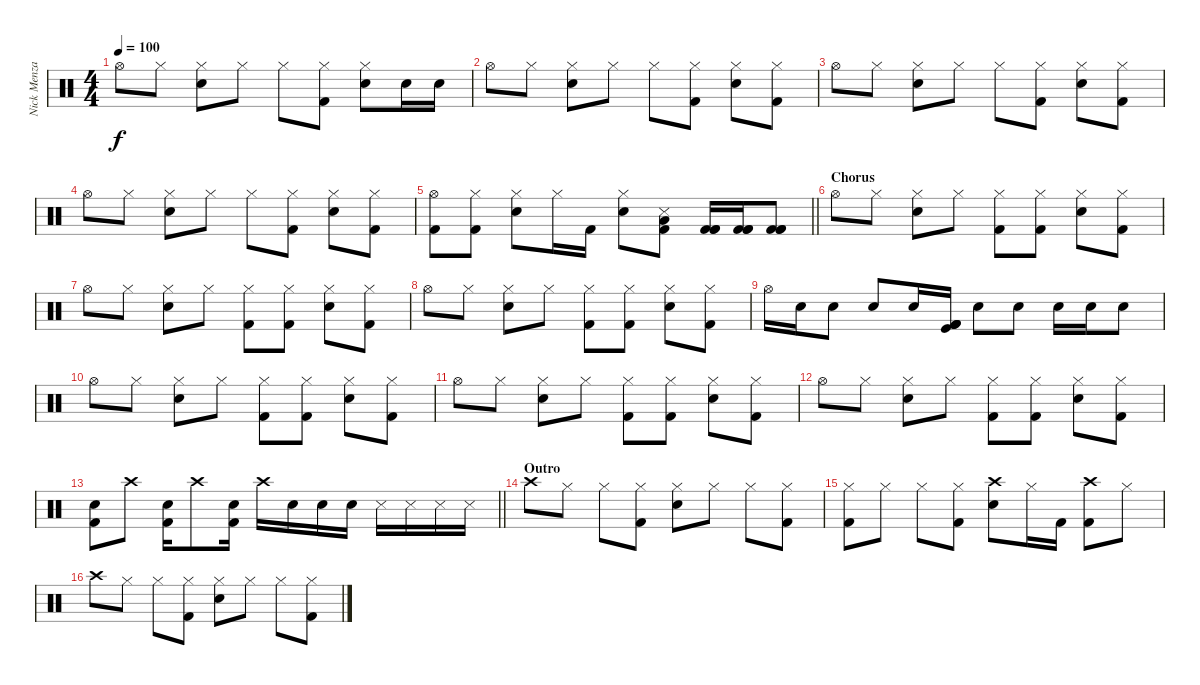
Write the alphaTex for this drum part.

\track ("Nick Menza" "Nick Menza") {instrument percussion}
\staff {score}
\articulation defaults
\ts (4 4)
\tempo 100
\clef neutral
\ks c "Hi-Hat (open)".8{dy f} "Hi-Hat (closed)".8
("Hi-Hat (closed)" "Snare (hit) 2").8 "Hi-Hat (closed)".8 "Hi-Hat (closed)".8 ("Hi-Hat (closed)" "Kick (hit) 2").8 ("Hi-Hat (closed)" "Snare (hit) 2").8 "Snare (hit) 2".16 "Snare (hit) 2".16 |
"Hi-Hat (open)".8 "Hi-Hat (closed)".8 ("Hi-Hat (closed)" "Snare (hit) 2").8 "Hi-Hat (closed)".8 "Hi-Hat (closed)".8 ("Hi-Hat (closed)" "Kick (hit) 2").8 ("Hi-Hat (closed)" "Snare (hit) 2").8 ("Hi-Hat (closed)" "Kick (hit) 2").8 |
"Hi-Hat (open)".8 "Hi-Hat (closed)".8 ("Hi-Hat (closed)" "Snare (hit) 2").8 "Hi-Hat (closed)".8 "Hi-Hat (closed)".8 ("Hi-Hat (closed)" "Kick (hit) 2").8 ("Hi-Hat (closed)" "Snare (hit) 2").8 ("Hi-Hat (closed)" "Kick (hit) 2").8 |
"Hi-Hat (open)".8 "Hi-Hat (closed)".8 ("Hi-Hat (closed)" "Snare (hit) 2").8 "Hi-Hat (closed)".8 "Hi-Hat (closed)".8 ("Hi-Hat (closed)" "Kick (hit) 2").8 ("Hi-Hat (closed)" "Snare (hit) 2").8 ("Hi-Hat (closed)" "Kick (hit) 2").8 |
\barLineRight lightlight
("Hi-Hat (open)" "Kick (hit) 2").8 ("Hi-Hat (closed)" "Kick (hit) 2").8 ("Hi-Hat (closed)" "Snare (hit) 2").8 "Hi-Hat (closed)".16 "Kick (hit) 2".16 ("Hi-Hat (closed)" "Snare (hit) 2").8 ("Low Floor Tom (hit)" "Snare (side stick) 3" "Kick (hit) 2").8 ("Kick (hit) 2" "Kick (hit) 2" "Kick (hit) 2").16 ("Kick (hit) 2" "Kick (hit) 2" "Kick (hit) 2").16 ("Kick (hit) 2" "Kick (hit) 2" "Kick (hit) 2").8 |
\section ("" "Chorus")
"Hi-Hat (open)".8 "Hi-Hat (closed)".8 ("Hi-Hat (closed)" "Snare (hit) 2").8 "Hi-Hat (closed)".8 ("Hi-Hat (closed)" "Kick (hit) 2").8 ("Hi-Hat (closed)" "Kick (hit) 2").8 ("Hi-Hat (closed)" "Snare (hit) 2").8 ("Hi-Hat (closed)" "Kick (hit) 2").8 |
"Hi-Hat (open)".8 "Hi-Hat (closed)".8 ("Hi-Hat (closed)" "Snare (hit) 2").8 "Hi-Hat (closed)".8 ("Hi-Hat (closed)" "Kick (hit) 2").8 ("Hi-Hat (closed)" "Kick (hit) 2").8 ("Hi-Hat (closed)" "Snare (hit) 2").8 ("Hi-Hat (closed)" "Kick (hit) 2").8 |
"Hi-Hat (open)".8 "Hi-Hat (closed)".8 ("Hi-Hat (closed)" "Snare (hit) 2").8 "Hi-Hat (closed)".8 ("Hi-Hat (closed)" "Kick (hit) 2").8 ("Hi-Hat (closed)" "Kick (hit) 2").8 ("Hi-Hat (closed)" "Snare (hit) 2").8 ("Hi-Hat (closed)" "Kick (hit) 2").8 |
"Hi-Hat (open)".16 "Snare (hit) 2".16 "Snare (hit) 2".8 "Snare (hit) 2".8 "Snare (hit) 2".16 ("Kick (hit)" "Kick (hit) 2" "Kick (hit) 2" "Kick (hit) 2").16 "Snare (hit) 2".8 "Snare (hit) 2".8 "Snare (hit) 2".16 "Snare (hit) 2".16 "Snare (hit) 2".8 |
"Hi-Hat (open)".8 "Hi-Hat (closed)".8 ("Hi-Hat (closed)" "Snare (hit) 2").8 "Hi-Hat (closed)".8 ("Hi-Hat (closed)" "Kick (hit) 2").8 ("Hi-Hat (closed)" "Kick (hit) 2").8 ("Hi-Hat (closed)" "Snare (hit) 2").8 ("Hi-Hat (closed)" "Kick (hit) 2").8 |
"Hi-Hat (open)".8 "Hi-Hat (closed)".8 ("Hi-Hat (closed)" "Snare (hit) 2").8 "Hi-Hat (closed)".8 ("Hi-Hat (closed)" "Kick (hit) 2").8 ("Hi-Hat (closed)" "Kick (hit) 2").8 ("Hi-Hat (closed)" "Snare (hit) 2").8 ("Hi-Hat (closed)" "Kick (hit) 2").8 |
"Hi-Hat (open)".8 "Hi-Hat (closed)".8 ("Hi-Hat (closed)" "Snare (hit) 2").8 "Hi-Hat (closed)".8 ("Hi-Hat (closed)" "Kick (hit) 2").8 ("Hi-Hat (closed)" "Kick (hit) 2").8 ("Hi-Hat (closed)" "Snare (hit) 2").8 ("Hi-Hat (closed)" "Kick (hit) 2").8 |
\barLineRight lightlight
("Snare (hit) 2" "Kick (hit) 2").8 "Crash high (hit)".8 ("Snare (hit) 2" "Kick (hit) 2").16 "Crash high (hit)".8 ("Snare (hit) 2" "Kick (hit) 2").16 "Crash high (hit)".16 "Snare (hit) 2".16 "Snare (hit) 2".16 "Snare (hit) 2".16 "Snare (side stick) 3".16 "Snare (side stick) 3".16 "Snare (side stick) 3".16 "Snare (side stick) 3".16 |
\section ("" "Outro")
"Crash high (hit)".8 "Hi-Hat (closed)".8 "Hi-Hat (closed)".8 ("Hi-Hat (closed)" "Kick (hit) 2").8 ("Hi-Hat (closed)" "Snare (hit) 2").8 "Hi-Hat (closed)".8 "Hi-Hat (closed)".8 ("Hi-Hat (closed)" "Kick (hit) 2").8 |
("Hi-Hat (closed)" "Kick (hit) 2").8 "Hi-Hat (closed)".8 "Hi-Hat (closed)".8 ("Hi-Hat (closed)" "Kick (hit) 2").8 ("Crash high (hit)" "Snare (hit) 2").8 "Hi-Hat (closed)".16 "Kick (hit) 2".16 ("Crash high (hit)" "Kick (hit) 2").8 "Hi-Hat (closed)".8 |
"Crash high (hit)".8 "Hi-Hat (closed)".8 "Hi-Hat (closed)".8 ("Hi-Hat (closed)" "Kick (hit) 2").8 ("Hi-Hat (closed)" "Snare (hit) 2").8 "Hi-Hat (closed)".8 "Hi-Hat (closed)".8 ("Hi-Hat (closed)" "Kick (hit) 2").8
